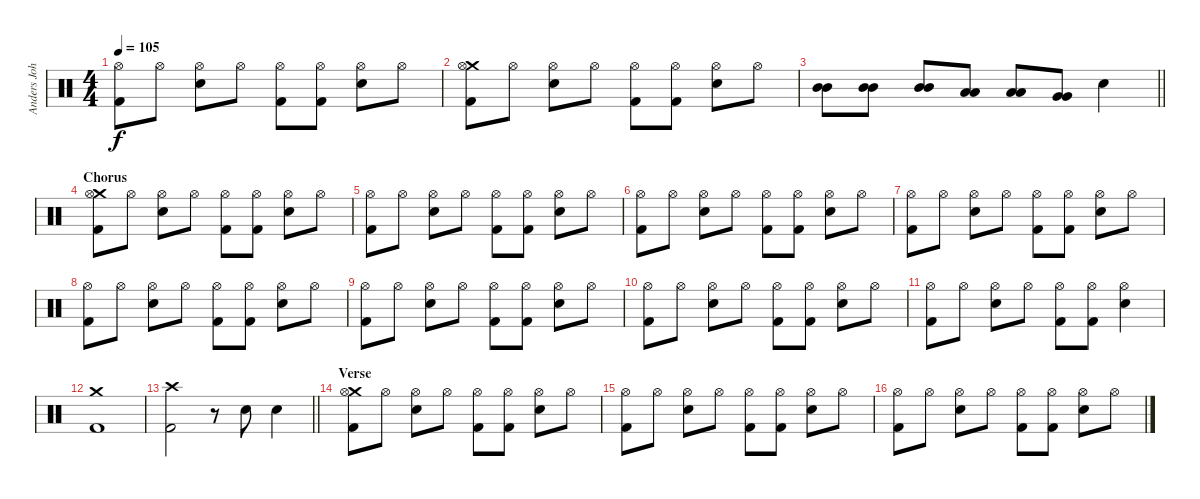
\track ("Anders Johansson" "Anders Joh") {instrument percussion}
\staff {score}
\articulation defaults
\ts (4 4)
\tempo 105
\clef neutral
\ks c
("Hi-Hat (open)" "Kick (hit) 2").8{dy f} "Hi-Hat (open)".8 ("Hi-Hat (open)" "Snare (hit) 2").8 "Hi-Hat (open)".8 ("Hi-Hat (open)" "Kick (hit) 2").8 ("Hi-Hat (open)" "Kick (hit) 2").8 ("Hi-Hat (open)" "Snare (hit) 2").8 "Hi-Hat (open)".8 |
("Crash medium (hit)" "Hi-Hat (open)" "Kick (hit) 2").8 "Hi-Hat (open)".8 ("Hi-Hat (open)" "Snare (hit) 2").8 "Hi-Hat (open)".8 ("Hi-Hat (open)" "Kick (hit) 2").8 ("Hi-Hat (open)" "Kick (hit) 2").8 ("Hi-Hat (open)" "Snare (hit) 2").8 "Hi-Hat (open)".8 |
\barLineRight lightlight
("Mid Tom (hit)" "Mid Tom (hit)").8 ("Mid Tom (hit)" "Mid Tom (hit)").8 ("Mid Tom (hit)" "Mid Tom (hit)").8 ("Low Tom (hit)" "Low Tom (hit)").8 ("Low Tom (hit)" "Low Tom (hit)").8 ("Very Low Tom (hit)" "Very Low Tom (hit)").8 "Snare (hit) 2".4 |
\section ("" "Chorus")
("Crash medium (hit)" "Hi-Hat (open)" "Kick (hit) 2").8 "Hi-Hat (open)".8 ("Hi-Hat (open)" "Snare (hit) 2").8 "Hi-Hat (open)".8 ("Hi-Hat (open)" "Kick (hit) 2").8 ("Hi-Hat (open)" "Kick (hit) 2").8 ("Hi-Hat (open)" "Snare (hit) 2").8 "Hi-Hat (open)".8 |
("Hi-Hat (open)" "Kick (hit) 2").8 "Hi-Hat (open)".8 ("Hi-Hat (open)" "Snare (hit) 2").8 "Hi-Hat (open)".8 ("Hi-Hat (open)" "Kick (hit) 2").8 ("Hi-Hat (open)" "Kick (hit) 2").8 ("Hi-Hat (open)" "Snare (hit) 2").8 "Hi-Hat (open)".8 |
("Hi-Hat (open)" "Kick (hit) 2").8 "Hi-Hat (open)".8 ("Hi-Hat (open)" "Snare (hit) 2").8 "Hi-Hat (open)".8 ("Hi-Hat (open)" "Kick (hit) 2").8 ("Hi-Hat (open)" "Kick (hit) 2").8 ("Hi-Hat (open)" "Snare (hit) 2").8 "Hi-Hat (open)".8 |
("Hi-Hat (open)" "Kick (hit) 2").8 "Hi-Hat (open)".8 ("Hi-Hat (open)" "Snare (hit) 2").8 "Hi-Hat (open)".8 ("Hi-Hat (open)" "Kick (hit) 2").8 ("Hi-Hat (open)" "Kick (hit) 2").8 ("Hi-Hat (open)" "Snare (hit) 2").8 "Hi-Hat (open)".8 |
("Hi-Hat (open)" "Kick (hit) 2").8 "Hi-Hat (open)".8 ("Hi-Hat (open)" "Snare (hit) 2").8 "Hi-Hat (open)".8 ("Hi-Hat (open)" "Kick (hit) 2").8 ("Hi-Hat (open)" "Kick (hit) 2").8 ("Hi-Hat (open)" "Snare (hit) 2").8 "Hi-Hat (open)".8 |
("Hi-Hat (open)" "Kick (hit) 2").8 "Hi-Hat (open)".8 ("Hi-Hat (open)" "Snare (hit) 2").8 "Hi-Hat (open)".8 ("Hi-Hat (open)" "Kick (hit) 2").8 ("Hi-Hat (open)" "Kick (hit) 2").8 ("Hi-Hat (open)" "Snare (hit) 2").8 "Hi-Hat (open)".8 |
("Hi-Hat (open)" "Kick (hit) 2").8 "Hi-Hat (open)".8 ("Hi-Hat (open)" "Snare (hit) 2").8 "Hi-Hat (open)".8 ("Hi-Hat (open)" "Kick (hit) 2").8 ("Hi-Hat (open)" "Kick (hit) 2").8 ("Hi-Hat (open)" "Snare (hit) 2").8 "Hi-Hat (open)".8 |
("Hi-Hat (open)" "Kick (hit) 2").8 "Hi-Hat (open)".8 ("Hi-Hat (open)" "Snare (hit) 2").8 "Hi-Hat (open)".8 ("Hi-Hat (open)" "Kick (hit) 2").8 ("Hi-Hat (open)" "Kick (hit) 2").8 ("Hi-Hat (open)" "Snare (hit) 2").4 |
("Crash medium (hit)" "Kick (hit) 2").1 |
\barLineRight lightlight
("Crash high (hit)" "Kick (hit) 2").2 r.8 "Snare (hit) 2".8 "Snare (hit) 2".4 |
\section ("" "Verse")
("Crash medium (hit)" "Hi-Hat (open)" "Kick (hit) 2").8 "Hi-Hat (open)".8 ("Hi-Hat (open)" "Snare (hit) 2").8 "Hi-Hat (open)".8 ("Hi-Hat (open)" "Kick (hit) 2").8 ("Hi-Hat (open)" "Kick (hit) 2").8 ("Hi-Hat (open)" "Snare (hit) 2").8 "Hi-Hat (open)".8 |
("Hi-Hat (open)" "Kick (hit) 2").8 "Hi-Hat (open)".8 ("Hi-Hat (open)" "Snare (hit) 2").8 "Hi-Hat (open)".8 ("Hi-Hat (open)" "Kick (hit) 2").8 ("Hi-Hat (open)" "Kick (hit) 2").8 ("Hi-Hat (open)" "Snare (hit) 2").8 "Hi-Hat (open)".8 |
("Hi-Hat (open)" "Kick (hit) 2").8 "Hi-Hat (open)".8 ("Hi-Hat (open)" "Snare (hit) 2").8 "Hi-Hat (open)".8 ("Hi-Hat (open)" "Kick (hit) 2").8 ("Hi-Hat (open)" "Kick (hit) 2").8 ("Hi-Hat (open)" "Snare (hit) 2").8 "Hi-Hat (open)".8
